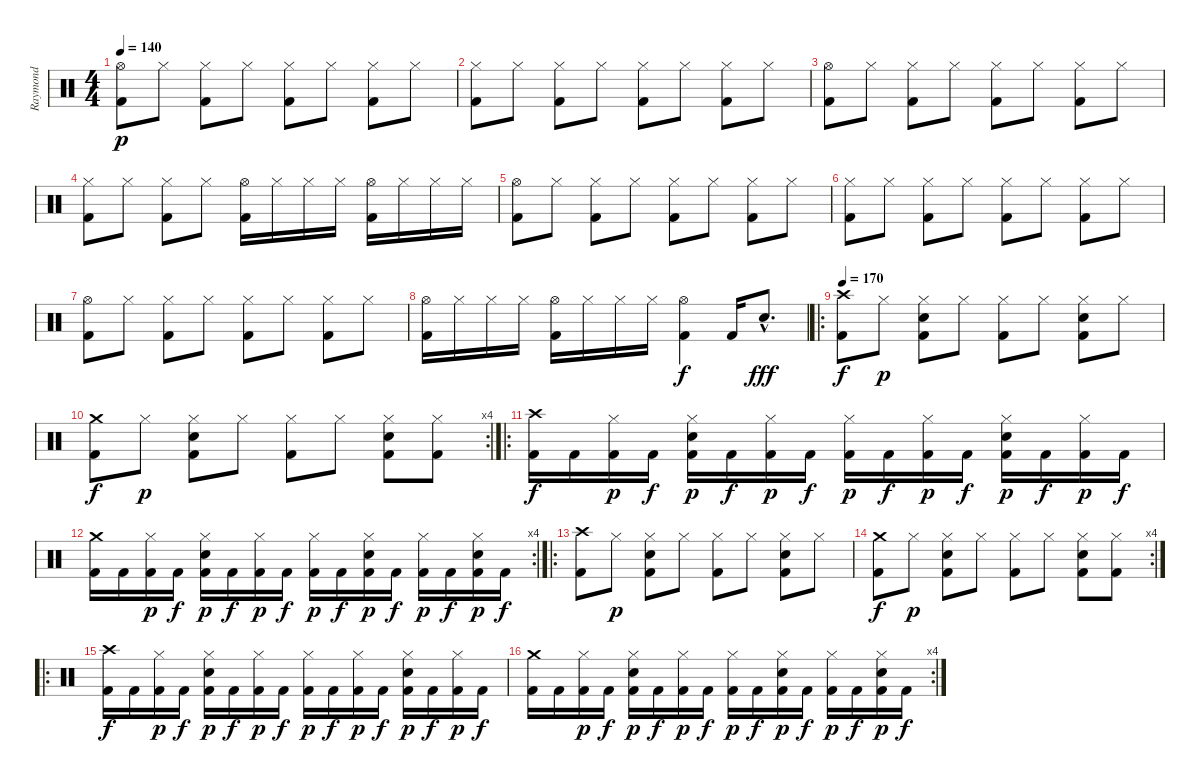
\track ("Raymond" "Raymond") {instrument percussion}
\staff {score}
\articulation defaults
\ts (4 4)
\tempo 140
\clef neutral
\ks c
("Hi-Hat (open)" "Kick (hit) 2").8{dy p} "Hi-Hat (closed)".8 ("Hi-Hat (closed)" "Kick (hit) 2").8 "Hi-Hat (closed)".8 ("Hi-Hat (closed)" "Kick (hit) 2").8 "Hi-Hat (closed)".8 ("Hi-Hat (closed)" "Kick (hit) 2").8 "Hi-Hat (closed)".8 |
("Hi-Hat (closed)" "Kick (hit) 2").8 "Hi-Hat (closed)".8 ("Hi-Hat (closed)" "Kick (hit) 2").8 "Hi-Hat (closed)".8 ("Hi-Hat (closed)" "Kick (hit) 2").8 "Hi-Hat (closed)".8 ("Hi-Hat (closed)" "Kick (hit) 2").8 "Hi-Hat (closed)".8 |
("Hi-Hat (open)" "Kick (hit) 2").8 "Hi-Hat (closed)".8 ("Hi-Hat (closed)" "Kick (hit) 2").8 "Hi-Hat (closed)".8 ("Hi-Hat (closed)" "Kick (hit) 2").8 "Hi-Hat (closed)".8 ("Hi-Hat (closed)" "Kick (hit) 2").8 "Hi-Hat (closed)".8 |
("Hi-Hat (closed)" "Kick (hit) 2").8 "Hi-Hat (closed)".8 ("Hi-Hat (closed)" "Kick (hit) 2").8 "Hi-Hat (closed)".8 ("Hi-Hat (open)" "Kick (hit) 2").16 "Hi-Hat (closed)".16 "Hi-Hat (closed)".16 "Hi-Hat (closed)".16 ("Hi-Hat (open)" "Kick (hit) 2").16 "Hi-Hat (closed)".16 "Hi-Hat (closed)".16 "Hi-Hat (closed)".16 |
("Hi-Hat (open)" "Kick (hit) 2").8 "Hi-Hat (closed)".8 ("Hi-Hat (closed)" "Kick (hit) 2").8 "Hi-Hat (closed)".8 ("Hi-Hat (closed)" "Kick (hit) 2").8 "Hi-Hat (closed)".8 ("Hi-Hat (closed)" "Kick (hit) 2").8 "Hi-Hat (closed)".8 |
("Hi-Hat (closed)" "Kick (hit) 2").8 "Hi-Hat (closed)".8 ("Hi-Hat (closed)" "Kick (hit) 2").8 "Hi-Hat (closed)".8 ("Hi-Hat (closed)" "Kick (hit) 2").8 "Hi-Hat (closed)".8 ("Hi-Hat (closed)" "Kick (hit) 2").8 "Hi-Hat (closed)".8 |
("Hi-Hat (open)" "Kick (hit) 2").8 "Hi-Hat (closed)".8 ("Hi-Hat (closed)" "Kick (hit) 2").8 "Hi-Hat (closed)".8 ("Hi-Hat (closed)" "Kick (hit) 2").8 "Hi-Hat (closed)".8 ("Hi-Hat (closed)" "Kick (hit) 2").8 "Hi-Hat (closed)".8 |
("Hi-Hat (open)" "Kick (hit) 2").16 "Hi-Hat (closed)".16 "Hi-Hat (closed)".16 "Hi-Hat (closed)".16 ("Hi-Hat (open)" "Kick (hit) 2").16 "Hi-Hat (closed)".16 "Hi-Hat (closed)".16 "Hi-Hat (closed)".16 ("Hi-Hat (open)" "Kick (hit) 2").4{dy f} "Kick (hit) 2".16 "Electric Snare (hit)"{hac}.8{d dy fff} |
\ro
\tempo 170
("Crash high (hit)" "Kick (hit) 2").8{dy f} "Hi-Hat (closed)".8{dy p} ("Hi-Hat (closed)" "Electric Snare (hit)" "Kick (hit) 2").8 "Hi-Hat (closed)".8 ("Hi-Hat (closed)" "Kick (hit) 2").8 "Hi-Hat (closed)".8 ("Hi-Hat (closed)" "Electric Snare (hit)" "Kick (hit) 2").8 "Hi-Hat (closed)".8 |
\rc 4
("Crash medium (hit)" "Kick (hit) 2").8{dy f} "Hi-Hat (closed)".8{dy p} ("Hi-Hat (closed)" "Electric Snare (hit)" "Kick (hit) 2").8 "Hi-Hat (closed)".8 ("Hi-Hat (closed)" "Kick (hit) 2").8 "Hi-Hat (closed)".8 ("Hi-Hat (closed)" "Electric Snare (hit)" "Kick (hit) 2").8 ("Hi-Hat (closed)" "Kick (hit) 2").8 |
\ro
("Crash high (hit)" "Kick (hit) 2").16{dy f} "Kick (hit) 2".16 ("Hi-Hat (closed)" "Kick (hit) 2").16{dy p} "Kick (hit) 2".16{dy f} ("Hi-Hat (closed)" "Electric Snare (hit)" "Kick (hit) 2").16{dy p} "Kick (hit) 2".16{dy f} ("Hi-Hat (closed)" "Kick (hit) 2").16{dy p} "Kick (hit) 2".16{dy f} ("Hi-Hat (closed)" "Kick (hit) 2").16{dy p} "Kick (hit) 2".16{dy f} ("Hi-Hat (closed)" "Kick (hit) 2").16{dy p} "Kick (hit) 2".16{dy f} ("Hi-Hat (closed)" "Electric Snare (hit)" "Kick (hit) 2").16{dy p} "Kick (hit) 2".16{dy f} ("Hi-Hat (closed)" "Kick (hit) 2").16{dy p} "Kick (hit) 2".16{dy f} |
\rc 4
("Crash medium (hit)" "Kick (hit) 2").16 "Kick (hit) 2".16 ("Hi-Hat (closed)" "Kick (hit) 2").16{dy p} "Kick (hit) 2".16{dy f} ("Hi-Hat (closed)" "Electric Snare (hit)" "Kick (hit) 2").16{dy p} "Kick (hit) 2".16{dy f} ("Hi-Hat (closed)" "Kick (hit) 2").16{dy p} "Kick (hit) 2".16{dy f} ("Hi-Hat (closed)" "Kick (hit) 2").16{dy p} "Kick (hit) 2".16{dy f} ("Hi-Hat (closed)" "Electric Snare (hit)" "Kick (hit) 2").16{dy p} "Kick (hit) 2".16{dy f} ("Hi-Hat (closed)" "Kick (hit) 2").16{dy p} "Kick (hit) 2".16{dy f} ("Hi-Hat (closed)" "Electric Snare (hit)" "Kick (hit) 2").16{dy p} "Kick (hit) 2".16{dy f} |
\ro
("Crash high (hit)" "Kick (hit) 2").8 "Hi-Hat (closed)".8{dy p} ("Hi-Hat (closed)" "Electric Snare (hit)" "Kick (hit) 2").8 "Hi-Hat (closed)".8 ("Hi-Hat (closed)" "Kick (hit) 2").8 "Hi-Hat (closed)".8 ("Hi-Hat (closed)" "Electric Snare (hit)" "Kick (hit) 2").8 "Hi-Hat (closed)".8 |
\rc 4
("Crash medium (hit)" "Kick (hit) 2").8{dy f} "Hi-Hat (closed)".8{dy p} ("Hi-Hat (closed)" "Electric Snare (hit)" "Kick (hit) 2").8 "Hi-Hat (closed)".8 ("Hi-Hat (closed)" "Kick (hit) 2").8 "Hi-Hat (closed)".8 ("Hi-Hat (closed)" "Electric Snare (hit)" "Kick (hit) 2").8 ("Hi-Hat (closed)" "Kick (hit) 2").8 |
\ro
("Crash high (hit)" "Kick (hit) 2").16{dy f} "Kick (hit) 2".16 ("Hi-Hat (closed)" "Kick (hit) 2").16{dy p} "Kick (hit) 2".16{dy f} ("Hi-Hat (closed)" "Electric Snare (hit)" "Kick (hit) 2").16{dy p} "Kick (hit) 2".16{dy f} ("Hi-Hat (closed)" "Kick (hit) 2").16{dy p} "Kick (hit) 2".16{dy f} ("Hi-Hat (closed)" "Kick (hit) 2").16{dy p} "Kick (hit) 2".16{dy f} ("Hi-Hat (closed)" "Kick (hit) 2").16{dy p} "Kick (hit) 2".16{dy f} ("Hi-Hat (closed)" "Electric Snare (hit)" "Kick (hit) 2").16{dy p} "Kick (hit) 2".16{dy f} ("Hi-Hat (closed)" "Kick (hit) 2").16{dy p} "Kick (hit) 2".16{dy f} |
\rc 4
("Crash medium (hit)" "Kick (hit) 2").16 "Kick (hit) 2".16 ("Hi-Hat (closed)" "Kick (hit) 2").16{dy p} "Kick (hit) 2".16{dy f} ("Hi-Hat (closed)" "Electric Snare (hit)" "Kick (hit) 2").16{dy p} "Kick (hit) 2".16{dy f} ("Hi-Hat (closed)" "Kick (hit) 2").16{dy p} "Kick (hit) 2".16{dy f} ("Hi-Hat (closed)" "Kick (hit) 2").16{dy p} "Kick (hit) 2".16{dy f} ("Hi-Hat (closed)" "Electric Snare (hit)" "Kick (hit) 2").16{dy p} "Kick (hit) 2".16{dy f} ("Hi-Hat (closed)" "Kick (hit) 2").16{dy p} "Kick (hit) 2".16{dy f} ("Hi-Hat (closed)" "Electric Snare (hit)" "Kick (hit) 2").16{dy p} "Kick (hit) 2".16{dy f}
